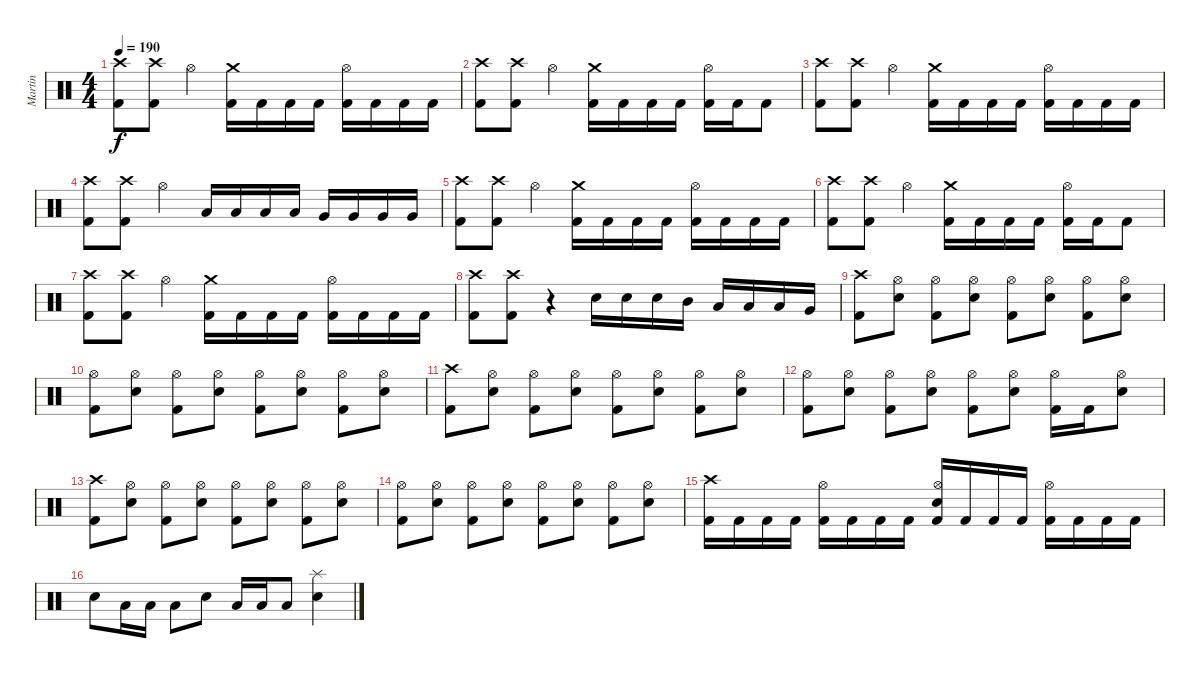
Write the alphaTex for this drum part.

\track ("Martin" "Martin") {instrument percussion}
\staff {score}
\articulation defaults
\ts (4 4)
\tempo 190
\clef neutral
\ks c
("Crash high (hit)" "Kick (hit) 2").8{dy f} ("Crash high (hit)" "Kick (hit) 2").8 "Hi-Hat (open)".4 ("Crash medium (hit)" "Kick (hit) 2").16 "Kick (hit) 2".16 "Kick (hit) 2".16 "Kick (hit) 2".16 ("Hi-Hat (open)" "Kick (hit) 2").16 "Kick (hit) 2".16 "Kick (hit) 2".16 "Kick (hit) 2".16 |
("Crash high (hit)" "Kick (hit) 2").8 ("Crash high (hit)" "Kick (hit) 2").8 "Hi-Hat (open)".4 ("Crash medium (hit)" "Kick (hit) 2").16 "Kick (hit) 2".16 "Kick (hit) 2".16 "Kick (hit) 2".16 ("Hi-Hat (open)" "Kick (hit) 2").16 "Kick (hit) 2".16 "Kick (hit) 2".8 |
("Crash high (hit)" "Kick (hit) 2").8 ("Crash high (hit)" "Kick (hit) 2").8 "Hi-Hat (open)".4 ("Crash medium (hit)" "Kick (hit) 2").16 "Kick (hit) 2".16 "Kick (hit) 2".16 "Kick (hit) 2".16 ("Hi-Hat (open)" "Kick (hit) 2").16 "Kick (hit) 2".16 "Kick (hit) 2".16 "Kick (hit) 2".16 |
("Crash high (hit)" "Kick (hit) 2").8 ("Crash high (hit)" "Kick (hit) 2").8 "Hi-Hat (open)".4 "Low Tom (hit)".16 "Low Tom (hit)".16 "Low Tom (hit)".16 "Low Tom (hit)".16 "Very Low Tom (hit)".16 "Very Low Tom (hit)".16 "Very Low Tom (hit)".16 "Very Low Tom (hit)".16 |
("Crash high (hit)" "Kick (hit) 2").8 ("Crash high (hit)" "Kick (hit) 2").8 "Hi-Hat (open)".4 ("Crash medium (hit)" "Kick (hit) 2").16 "Kick (hit) 2".16 "Kick (hit) 2".16 "Kick (hit) 2".16 ("Hi-Hat (open)" "Kick (hit) 2").16 "Kick (hit) 2".16 "Kick (hit) 2".16 "Kick (hit) 2".16 |
("Crash high (hit)" "Kick (hit) 2").8 ("Crash high (hit)" "Kick (hit) 2").8 "Hi-Hat (open)".4 ("Crash medium (hit)" "Kick (hit) 2").16 "Kick (hit) 2".16 "Kick (hit) 2".16 "Kick (hit) 2".16 ("Hi-Hat (open)" "Kick (hit) 2").16 "Kick (hit) 2".16 "Kick (hit) 2".8 |
("Crash high (hit)" "Kick (hit) 2").8 ("Crash high (hit)" "Kick (hit) 2").8 "Hi-Hat (open)".4 ("Crash medium (hit)" "Kick (hit) 2").16 "Kick (hit) 2".16 "Kick (hit) 2".16 "Kick (hit) 2".16 ("Hi-Hat (open)" "Kick (hit) 2").16 "Kick (hit) 2".16 "Kick (hit) 2".16 "Kick (hit) 2".16 |
("Crash high (hit)" "Kick (hit) 2").8 ("Crash high (hit)" "Kick (hit) 2").8 r.4 "Snare (hit) 2".16 "Snare (hit) 2".16 "Snare (hit) 2".16 "Mid Tom (hit)".16 "Low Tom (hit)".16 "Low Tom (hit)".16 "Low Tom (hit)".16 "Very Low Tom (hit)".16 |
("Crash high (hit)" "Kick (hit) 2").8 ("Hi-Hat (open)" "Snare (hit) 2").8 ("Hi-Hat (open)" "Kick (hit) 2").8 ("Hi-Hat (open)" "Snare (hit) 2").8 ("Hi-Hat (open)" "Kick (hit) 2").8 ("Hi-Hat (open)" "Snare (hit) 2").8 ("Hi-Hat (open)" "Kick (hit) 2").8 ("Hi-Hat (open)" "Snare (hit) 2").8 |
("Hi-Hat (open)" "Kick (hit) 2").8 ("Hi-Hat (open)" "Snare (hit) 2").8 ("Hi-Hat (open)" "Kick (hit) 2").8 ("Hi-Hat (open)" "Snare (hit) 2").8 ("Hi-Hat (open)" "Kick (hit) 2").8 ("Hi-Hat (open)" "Snare (hit) 2").8 ("Hi-Hat (open)" "Kick (hit) 2").8 ("Hi-Hat (open)" "Snare (hit) 2").8 |
("Crash high (hit)" "Kick (hit) 2").8 ("Hi-Hat (open)" "Snare (hit) 2").8 ("Hi-Hat (open)" "Kick (hit) 2").8 ("Hi-Hat (open)" "Snare (hit) 2").8 ("Hi-Hat (open)" "Kick (hit) 2").8 ("Hi-Hat (open)" "Snare (hit) 2").8 ("Hi-Hat (open)" "Kick (hit) 2").8 ("Hi-Hat (open)" "Snare (hit) 2").8 |
("Hi-Hat (open)" "Kick (hit) 2").8 ("Hi-Hat (open)" "Snare (hit) 2").8 ("Hi-Hat (open)" "Kick (hit) 2").8 ("Hi-Hat (open)" "Snare (hit) 2").8 ("Hi-Hat (open)" "Kick (hit) 2").8 ("Hi-Hat (open)" "Snare (hit) 2").8 ("Hi-Hat (open)" "Kick (hit) 2").16 "Kick (hit) 2".16 ("Hi-Hat (open)" "Snare (hit) 2").8 |
("Crash high (hit)" "Kick (hit) 2").8 ("Hi-Hat (open)" "Snare (hit) 2").8 ("Hi-Hat (open)" "Kick (hit) 2").8 ("Hi-Hat (open)" "Snare (hit) 2").8 ("Hi-Hat (open)" "Kick (hit) 2").8 ("Hi-Hat (open)" "Snare (hit) 2").8 ("Hi-Hat (open)" "Kick (hit) 2").8 ("Hi-Hat (open)" "Snare (hit) 2").8 |
("Hi-Hat (open)" "Kick (hit) 2").8 ("Hi-Hat (open)" "Snare (hit) 2").8 ("Hi-Hat (open)" "Kick (hit) 2").8 ("Hi-Hat (open)" "Snare (hit) 2").8 ("Hi-Hat (open)" "Kick (hit) 2").8 ("Hi-Hat (open)" "Snare (hit) 2").8 ("Hi-Hat (open)" "Kick (hit) 2").8 ("Hi-Hat (open)" "Snare (hit) 2").8 |
("Crash high (hit)" "Kick (hit) 2").16 "Kick (hit) 2".16 "Kick (hit) 2".16 "Kick (hit) 2".16 ("Hi-Hat (open)" "Kick (hit) 2").16 "Kick (hit) 2".16 "Kick (hit) 2".16 "Kick (hit) 2".16 ("Hi-Hat (open)" "Snare (hit) 2" "Kick (hit) 2").16 "Kick (hit) 2".16 "Kick (hit) 2".16 "Kick (hit) 2".16 ("Hi-Hat (open)" "Kick (hit) 2").16 "Kick (hit) 2".16 "Kick (hit) 2".16 "Kick (hit) 2".16 |
"Snare (hit) 2".8 "Low Tom (hit)".16 "Low Tom (hit)".16 "Low Tom (hit)".8 "Snare (hit) 2".8 "Low Tom (hit)".16 "Low Tom (hit)".16 "Low Tom (hit)".8 ("Splash (hit)" "Snare (hit) 2").4
